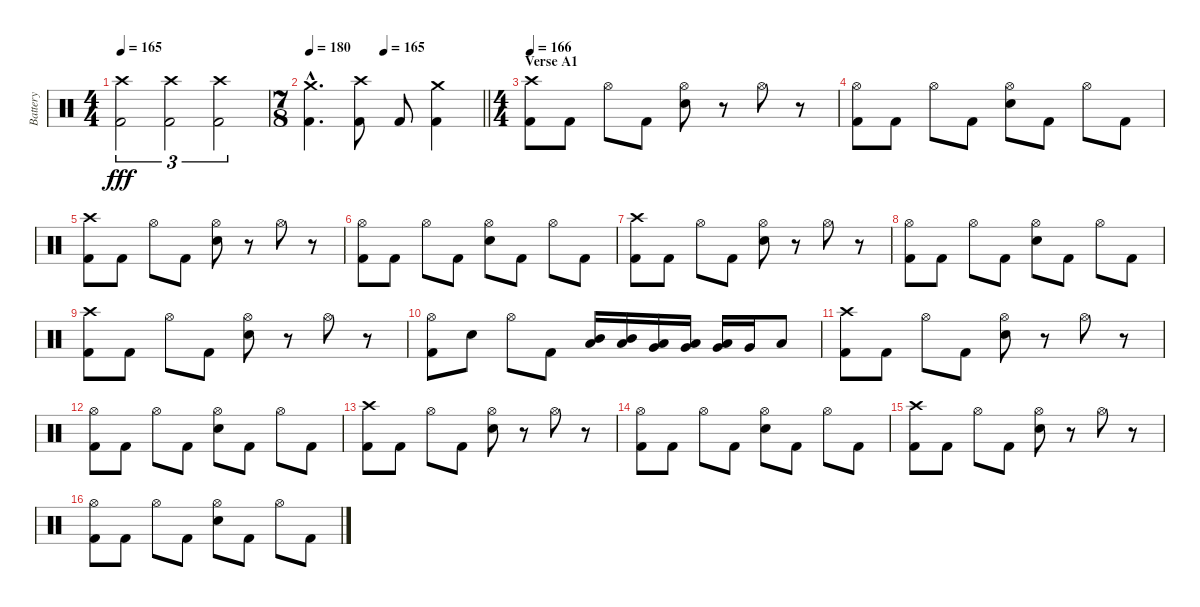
\track ("Battery" "Battery") {instrument percussion}
\staff {score}
\articulation defaults
\ts (4 4)
\tempo 165
\clef neutral
\ks c
("Crash high (hit)" "Kick (hit) 2").2{tu (3 2) dy fff} ("Crash high (hit)" "Kick (hit) 2").2{tu (3 2)} ("Crash high (hit)" "Kick (hit) 2").2{tu (3 2)} |
\ts (7 8)
\tempo 180
\tempo (165 0.42857142857142855)
\barLineRight lightlight
("Crash medium (hit)"{hac} "Kick (hit) 2"{hac}).4{d} ("Crash high (hit)" "Kick (hit) 2").8 "Kick (hit) 2".8 ("Crash medium (hit)" "Kick (hit) 2").4 |
\ts (4 4)
\section ("" "Verse A1")
\tempo 166
("Crash high (hit)" "Kick (hit) 2").8 "Kick (hit) 2".8 "Hi-Hat (open)".8 "Kick (hit) 2".8 ("Hi-Hat (open)" "Electric Snare (hit)").8 r.8 "Hi-Hat (open)".8 r.8 |
("Hi-Hat (open)" "Kick (hit) 2").8 "Kick (hit) 2".8 "Hi-Hat (open)".8 "Kick (hit) 2".8 ("Hi-Hat (open)" "Electric Snare (hit)").8 "Kick (hit) 2".8 "Hi-Hat (open)".8 "Kick (hit) 2".8 |
("Crash high (hit)" "Kick (hit) 2").8 "Kick (hit) 2".8 "Hi-Hat (open)".8 "Kick (hit) 2".8 ("Hi-Hat (open)" "Electric Snare (hit)").8 r.8 "Hi-Hat (open)".8 r.8 |
("Hi-Hat (open)" "Kick (hit) 2").8 "Kick (hit) 2".8 "Hi-Hat (open)".8 "Kick (hit) 2".8 ("Hi-Hat (open)" "Electric Snare (hit)").8 "Kick (hit) 2".8 "Hi-Hat (open)".8 "Kick (hit) 2".8 |
("Crash high (hit)" "Kick (hit) 2").8 "Kick (hit) 2".8 "Hi-Hat (open)".8 "Kick (hit) 2".8 ("Hi-Hat (open)" "Electric Snare (hit)").8 r.8 "Hi-Hat (open)".8 r.8 |
("Hi-Hat (open)" "Kick (hit) 2").8 "Kick (hit) 2".8 "Hi-Hat (open)".8 "Kick (hit) 2".8 ("Hi-Hat (open)" "Electric Snare (hit)").8 "Kick (hit) 2".8 "Hi-Hat (open)".8 "Kick (hit) 2".8 |
("Crash high (hit)" "Kick (hit) 2").8 "Kick (hit) 2".8 "Hi-Hat (open)".8 "Kick (hit) 2".8 ("Hi-Hat (open)" "Electric Snare (hit)").8 r.8 "Hi-Hat (open)".8 r.8 |
("Hi-Hat (open)" "Kick (hit) 2").8 "Electric Snare (hit)".8 "Hi-Hat (open)".8 "Kick (hit) 2".8 ("Mid Tom (hit)" "Low Tom (hit)").16 ("Mid Tom (hit)" "Low Tom (hit)").16 ("Low Tom (hit)" "Very Low Tom (hit)").16 ("Low Tom (hit)" "Very Low Tom (hit)").16 ("Very Low Tom (hit)" "Low Floor Tom (hit)").16 "Very Low Tom (hit)".16 "Low Floor Tom (hit)".8 |
("Crash high (hit)" "Kick (hit) 2").8 "Kick (hit) 2".8 "Hi-Hat (open)".8 "Kick (hit) 2".8 ("Hi-Hat (open)" "Electric Snare (hit)").8 r.8 "Hi-Hat (open)".8 r.8 |
("Hi-Hat (open)" "Kick (hit) 2").8 "Kick (hit) 2".8 "Hi-Hat (open)".8 "Kick (hit) 2".8 ("Hi-Hat (open)" "Electric Snare (hit)").8 "Kick (hit) 2".8 "Hi-Hat (open)".8 "Kick (hit) 2".8 |
("Crash high (hit)" "Kick (hit) 2").8 "Kick (hit) 2".8 "Hi-Hat (open)".8 "Kick (hit) 2".8 ("Hi-Hat (open)" "Electric Snare (hit)").8 r.8 "Hi-Hat (open)".8 r.8 |
("Hi-Hat (open)" "Kick (hit) 2").8 "Kick (hit) 2".8 "Hi-Hat (open)".8 "Kick (hit) 2".8 ("Hi-Hat (open)" "Electric Snare (hit)").8 "Kick (hit) 2".8 "Hi-Hat (open)".8 "Kick (hit) 2".8 |
("Crash high (hit)" "Kick (hit) 2").8 "Kick (hit) 2".8 "Hi-Hat (open)".8 "Kick (hit) 2".8 ("Hi-Hat (open)" "Electric Snare (hit)").8 r.8 "Hi-Hat (open)".8 r.8 |
("Hi-Hat (open)" "Kick (hit) 2").8 "Kick (hit) 2".8 "Hi-Hat (open)".8 "Kick (hit) 2".8 ("Hi-Hat (open)" "Electric Snare (hit)").8 "Kick (hit) 2".8 "Hi-Hat (open)".8 "Kick (hit) 2".8
